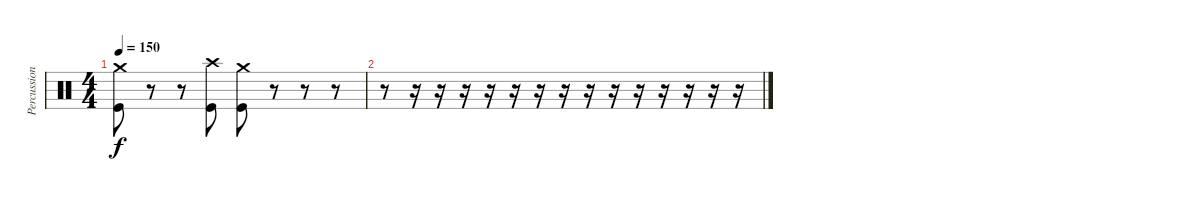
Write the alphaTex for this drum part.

\track ("Percussion" "Percussion") {instrument percussion}
\staff {score}
\articulation defaults
\ts (4 4)
\tempo 150
\clef neutral
\ks c
("Crash medium (hit)" "Kick (hit)").8{dy f} r.8 r.8 ("Crash high (hit)" "Kick (hit)").8 ("Crash medium (hit)" "Kick (hit)").8 r.8 r.8 r.8 |
r.8 r.16 r.16 r.16 r.16 r.16 r.16 r.16 r.16 r.16 r.16 r.16 r.16 r.16 r.16
